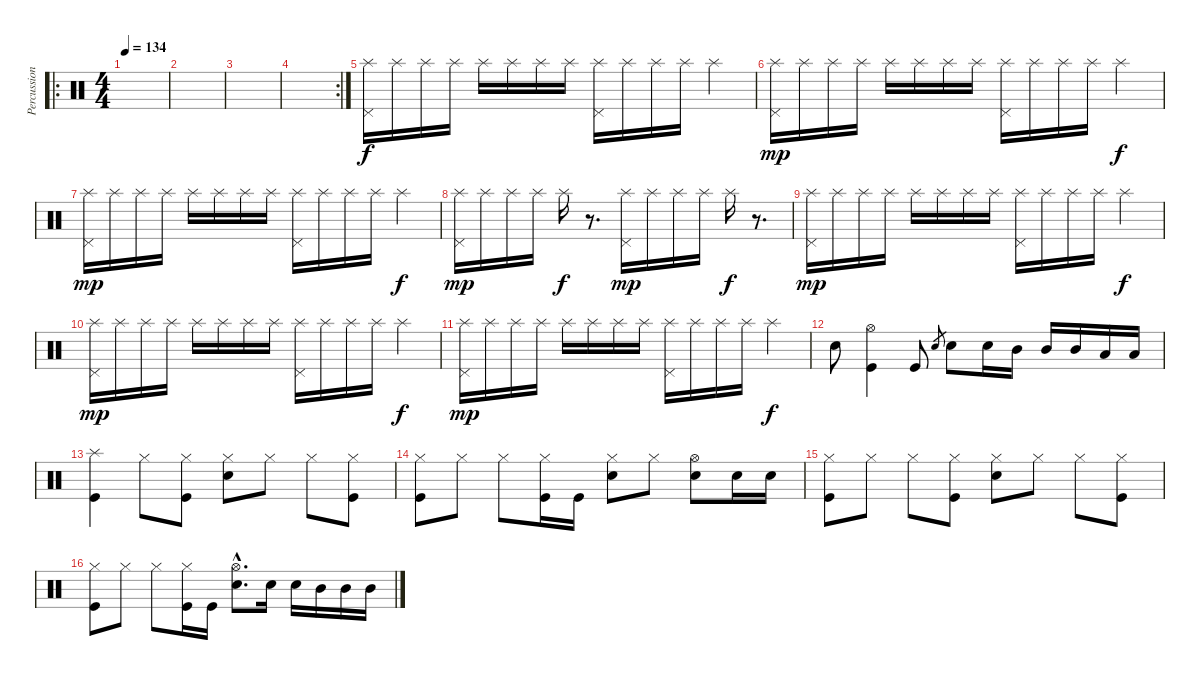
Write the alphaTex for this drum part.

\track ("Percussions" "Percussion") {instrument percussion}
\staff {score}
\articulation defaults
\ro
\ts (4 4)
\tempo 134
\clef neutral
\ks c
|
|
|
\rc 2
|
("Pedal Hi-Hat (hit)" "Splash (hit)").16 "Splash (hit)".16 "Splash (hit)".16 "Splash (hit)".16 "Splash (hit)".16 "Splash (hit)".16 "Splash (hit)".16 "Splash (hit)".16 ("Pedal Hi-Hat (hit)" "Splash (hit)").16 "Splash (hit)".16 "Splash (hit)".16 "Splash (hit)".16 "Splash (hit)".4{dy f} |
("Pedal Hi-Hat (hit)" "Splash (hit)").16{dy mp} "Splash (hit)".16 "Splash (hit)".16 "Splash (hit)".16 "Splash (hit)".16 "Splash (hit)".16 "Splash (hit)".16 "Splash (hit)".16 ("Pedal Hi-Hat (hit)" "Splash (hit)").16 "Splash (hit)".16 "Splash (hit)".16 "Splash (hit)".16 "Splash (hit)".4{dy f} |
("Pedal Hi-Hat (hit)" "Splash (hit)").16{dy mp} "Splash (hit)".16 "Splash (hit)".16 "Splash (hit)".16 "Splash (hit)".16 "Splash (hit)".16 "Splash (hit)".16 "Splash (hit)".16 ("Pedal Hi-Hat (hit)" "Splash (hit)").16 "Splash (hit)".16 "Splash (hit)".16 "Splash (hit)".16 "Splash (hit)".4{dy f} |
("Pedal Hi-Hat (hit)" "Splash (hit)").16{dy mp} "Splash (hit)".16 "Splash (hit)".16 "Splash (hit)".16 "Splash (hit)".16{dy f} r.8{d} ("Pedal Hi-Hat (hit)" "Splash (hit)").16{dy mp} "Splash (hit)".16 "Splash (hit)".16 "Splash (hit)".16 "Splash (hit)".16{dy f} r.8{d} |
("Pedal Hi-Hat (hit)" "Splash (hit)").16{dy mp} "Splash (hit)".16 "Splash (hit)".16 "Splash (hit)".16 "Splash (hit)".16 "Splash (hit)".16 "Splash (hit)".16 "Splash (hit)".16 ("Pedal Hi-Hat (hit)" "Splash (hit)").16 "Splash (hit)".16 "Splash (hit)".16 "Splash (hit)".16 "Splash (hit)".4{dy f} |
("Pedal Hi-Hat (hit)" "Splash (hit)").16{dy mp} "Splash (hit)".16 "Splash (hit)".16 "Splash (hit)".16 "Splash (hit)".16 "Splash (hit)".16 "Splash (hit)".16 "Splash (hit)".16 ("Pedal Hi-Hat (hit)" "Splash (hit)").16 "Splash (hit)".16 "Splash (hit)".16 "Splash (hit)".16 "Splash (hit)".4{dy f} |
("Pedal Hi-Hat (hit)" "Splash (hit)").16{dy mp} "Splash (hit)".16 "Splash (hit)".16 "Splash (hit)".16 "Splash (hit)".16 "Splash (hit)".16 "Splash (hit)".16 "Splash (hit)".16 ("Pedal Hi-Hat (hit)" "Splash (hit)").16 "Splash (hit)".16 "Splash (hit)".16 "Splash (hit)".16 "Splash (hit)".4{dy f} |
"Electric Snare (hit)".8 ("Kick (hit)" "Hi-Hat (open)").4 "Kick (hit)".8 "Electric Snare (hit)".8{gr} "Electric Snare (hit)".8 "Electric Snare (hit)".16 "Mid Tom (hit)".16 "Mid Tom (hit)".16 "Mid Tom (hit)".16 "Low Tom (hit)".16 "Low Tom (hit)".16 |
("Kick (hit)" "Splash (hit)").4 "Hi-Hat (closed)".8 ("Kick (hit)" "Hi-Hat (closed)").8 ("Electric Snare (hit)" "Hi-Hat (closed)").8 "Hi-Hat (closed)".8 "Hi-Hat (closed)".8 ("Kick (hit)" "Hi-Hat (closed)").8 |
("Kick (hit)" "Hi-Hat (closed)").8 "Hi-Hat (closed)".8 "Hi-Hat (closed)".8 ("Kick (hit)" "Hi-Hat (closed)").16 "Kick (hit)".16 ("Electric Snare (hit)" "Hi-Hat (closed)").8 "Hi-Hat (closed)".8 ("Electric Snare (hit)" "Hi-Hat (open)").8 "Electric Snare (hit)".16 "Electric Snare (hit)".16 |
("Kick (hit)" "Hi-Hat (closed)").8 "Hi-Hat (closed)".8 "Hi-Hat (closed)".8 ("Kick (hit)" "Hi-Hat (closed)").8 ("Electric Snare (hit)" "Hi-Hat (closed)").8 "Hi-Hat (closed)".8 "Hi-Hat (closed)".8 ("Kick (hit)" "Hi-Hat (closed)").8 |
("Kick (hit)" "Hi-Hat (closed)").8 "Hi-Hat (closed)".8 "Hi-Hat (closed)".8 ("Kick (hit)" "Hi-Hat (closed)").16 "Kick (hit)".16 ("Electric Snare (hit)"{hac} "Hi-Hat (open)"{hac}).8{d} "Electric Snare (hit)".16 "Electric Snare (hit)".16 "Mid Tom (hit)".16 "Mid Tom (hit)".16 "Mid Tom (hit)".16
